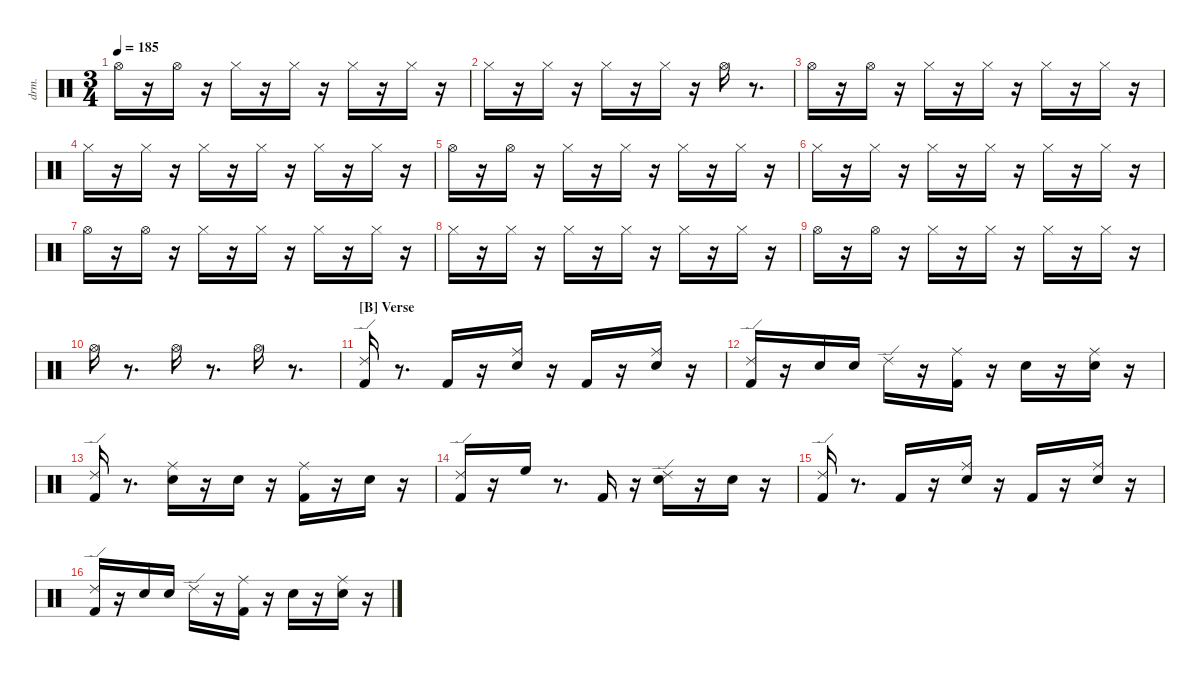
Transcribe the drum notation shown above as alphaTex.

\defaultSystemsLayout 4
\hideDynamics
\bracketExtendMode nobrackets
\otherSystemsTrackNameOrientation horizontal
\track ("drums" "drm.") {instrument percussion}
\staff {score}
\articulation defaults
\ts (3 4)
\tempo 185
\clef neutral
\ks aminor "Hi-Hat (open)"{acc #}.16{dy ff beam Down}
r.16{beam Down} "Hi-Hat (open)"{acc #}.16{dy p beam Down} r.16{beam Down} "Hi-Hat (closed)"{acc #}.16{beam Down} r.16{beam Down} "Hi-Hat (closed)"{acc #}.16{dy f beam Down} r.16{beam Down} "Hi-Hat (closed)"{acc #}.16{dy ppp beam Down} r.16{beam Down} "Hi-Hat (closed)"{acc #}.16{dy p beam Down} r.16{beam Down} |
"Hi-Hat (closed)"{acc #}.16{dy fff beam Down} r.16{beam Down} "Hi-Hat (closed)"{acc #}.16{dy ppp beam Down} r.16{beam Down} "Hi-Hat (closed)"{acc #}.16{dy f beam Down} r.16{beam Down} "Hi-Hat (closed)"{acc #}.16{dy pp beam Down} r.16{beam Down} "Hi-Hat (open)"{acc #}.16{dy f beam Down} r.8{d beam Down} |
"Hi-Hat (open)"{acc #}.16{dy fff beam Down} r.16{beam Down} "Hi-Hat (open)"{acc #}.16{dy p beam Down} r.16{beam Down} "Hi-Hat (closed)"{acc #}.16{beam Down} r.16{beam Down} "Hi-Hat (closed)"{acc #}.16{dy f beam Down} r.16{beam Down} "Hi-Hat (closed)"{acc #}.16{dy ppp beam Down} r.16{beam Down} "Hi-Hat (closed)"{acc #}.16{dy p beam Down} r.16{beam Down} |
"Hi-Hat (closed)"{acc #}.16{dy fff beam Down} r.16{beam Down} "Hi-Hat (closed)"{acc #}.16{dy ppp beam Down} r.16{beam Down} "Hi-Hat (closed)"{acc #}.16{beam Down} r.16{beam Down} "Hi-Hat (closed)"{acc #}.16{dy ff beam Down} r.16{beam Down} "Hi-Hat (closed)"{acc #}.16{dy pp beam Down} r.16{beam Down} "Hi-Hat (closed)"{acc #}.16{beam Down} r.16{beam Down} |
"Hi-Hat (open)"{acc #}.16{dy ff beam Down} r.16{beam Down} "Hi-Hat (open)"{acc #}.16{dy p beam Down} r.16{beam Down} "Hi-Hat (closed)"{acc #}.16{beam Down} r.16{beam Down} "Hi-Hat (closed)"{acc #}.16{dy f beam Down} r.16{beam Down} "Hi-Hat (closed)"{acc #}.16{dy ppp beam Down} r.16{beam Down} "Hi-Hat (closed)"{acc #}.16{dy p beam Down} r.16{beam Down} |
"Hi-Hat (closed)"{acc #}.16{dy fff beam Down} r.16{beam Down} "Hi-Hat (closed)"{acc #}.16{dy ppp beam Down} r.16{beam Down} "Hi-Hat (closed)"{acc #}.16{dy ff beam Down} r.16{beam Down} "Hi-Hat (closed)"{acc #}.16{dy pp beam Down} r.16{beam Down} "Hi-Hat (closed)"{acc #}.16{dy fff beam Down} r.16{beam Down} "Hi-Hat (closed)"{acc #}.16{dy mp beam Down} r.16{beam Down} |
"Hi-Hat (open)"{acc #}.16{dy fff beam Down} r.16{beam Down} "Hi-Hat (open)"{acc #}.16{dy p beam Down} r.16{beam Down} "Hi-Hat (closed)"{acc #}.16{beam Down} r.16{beam Down} "Hi-Hat (closed)"{acc #}.16{dy f beam Down} r.16{beam Down} "Hi-Hat (closed)"{acc #}.16{dy ppp beam Down} r.16{beam Down} "Hi-Hat (closed)"{acc #}.16{dy p beam Down} r.16{beam Down} |
"Hi-Hat (closed)"{acc #}.16{dy fff beam Down} r.16{beam Down} "Hi-Hat (closed)"{acc #}.16{dy ppp beam Down} r.16{beam Down} "Hi-Hat (closed)"{acc #}.16{beam Down} r.16{beam Down} "Hi-Hat (closed)"{acc #}.16{dy ff beam Down} r.16{beam Down} "Hi-Hat (closed)"{acc #}.16{dy pp beam Down} r.16{beam Down} "Hi-Hat (closed)"{acc #}.16{beam Down} r.16{beam Down} |
"Hi-Hat (open)"{acc #}.16{dy ff beam Down} r.16{beam Down} "Hi-Hat (open)"{acc #}.16{dy p beam Down} r.16{beam Down} "Hi-Hat (closed)"{acc #}.16{beam Down} r.16{beam Down} "Hi-Hat (closed)"{acc #}.16{dy f beam Down} r.16{beam Down} "Hi-Hat (closed)"{acc #}.16{dy ppp beam Down} r.16{beam Down} "Hi-Hat (closed)"{acc #}.16{dy p beam Down} r.16{beam Down} |
"Hi-Hat (open)"{acc #}.16{dy fff beam Down} r.8{d beam Down} "Hi-Hat (open)"{acc #}.16{dy ff beam Down} r.8{d beam Down} "Hi-Hat (open)"{acc #}.16{dy fff beam Down} r.8{d beam Down} |
\section ("B" "Verse")
("Kick (hit) 2" "Ride (edge) 2").16{dy ff beam Up} r.8{d beam Up} "Kick (hit) 2".16{beam Up} r.16{beam Up} ("Snare (hit) 2" "Ride (middle)"{acc #}).16{dy f beam Down} r.16{beam Down} "Kick (hit) 2".16{dy ff beam Up} r.16{beam Up} ("Snare (hit) 2" "Ride (middle)"{acc #}).16{beam Down} r.16{beam Down} |
("Kick (hit) 2" "Ride (edge) 2").16{beam Up} r.16{beam Up} "Snare (hit) 2".16{beam Down} "Snare (hit) 2".16{dy mf beam Down} "Ride (edge) 2".16{beam Down} r.16{beam Down} ("Kick (hit) 2" "Ride (middle)"{acc #}).16{dy ff beam Down} r.16{beam Down} "Snare (hit) 2".16{beam Down} r.16{beam Down} ("Snare (hit) 2" "Ride (middle)"{acc #}).16{dy mf beam Down} r.16{beam Down} |
("Kick (hit) 2" "Ride (edge) 2").16{dy ff beam Up} r.8{d beam Up} ("Snare (hit) 2" "Ride (middle)"{acc #}).16{beam Down} r.16{beam Down} "Snare (hit) 2".16{dy mf beam Down} r.16{beam Down} ("Kick (hit) 2" "Ride (middle)"{acc #}).16{dy ff beam Down} r.16{beam Down} "Snare (hit) 2".16{dy f beam Down} r.16{beam Down} |
("Kick (hit) 2" "Ride (edge) 2").16{dy ff beam Up} r.16{beam Up} "High Floor Tom (hit)".16{beam Down} r.8{d beam Down} "Kick (hit) 2".16{beam Up} r.16{beam Up} ("Snare (hit) 2" "Ride (edge) 2").16{beam Down} r.16{beam Down} "Snare (hit) 2".16{dy mp beam Down} r.16{beam Down} |
("Kick (hit) 2" "Ride (edge) 2").16{dy ff beam Up} r.8{d beam Up} "Kick (hit) 2".16{beam Up} r.16{beam Up} ("Snare (hit) 2" "Ride (middle)"{acc #}).16{dy f beam Down} r.16{beam Down} "Kick (hit) 2".16{dy ff beam Up} r.16{beam Up} ("Snare (hit) 2" "Ride (middle)"{acc #}).16{beam Down} r.16{beam Down} |
("Kick (hit) 2" "Ride (edge) 2").16{beam Up} r.16{beam Up} "Snare (hit) 2".16{beam Down} "Snare (hit) 2".16{dy mf beam Down} "Ride (edge) 2".16{beam Down} r.16{beam Down} ("Kick (hit) 2" "Ride (middle)"{acc #}).16{dy fff beam Down} r.16{beam Down} "Snare (hit) 2".16{dy ff beam Down} r.16{beam Down} ("Snare (hit) 2" "Ride (middle)"{acc #}).16{dy mf beam Down} r.16{beam Down}
